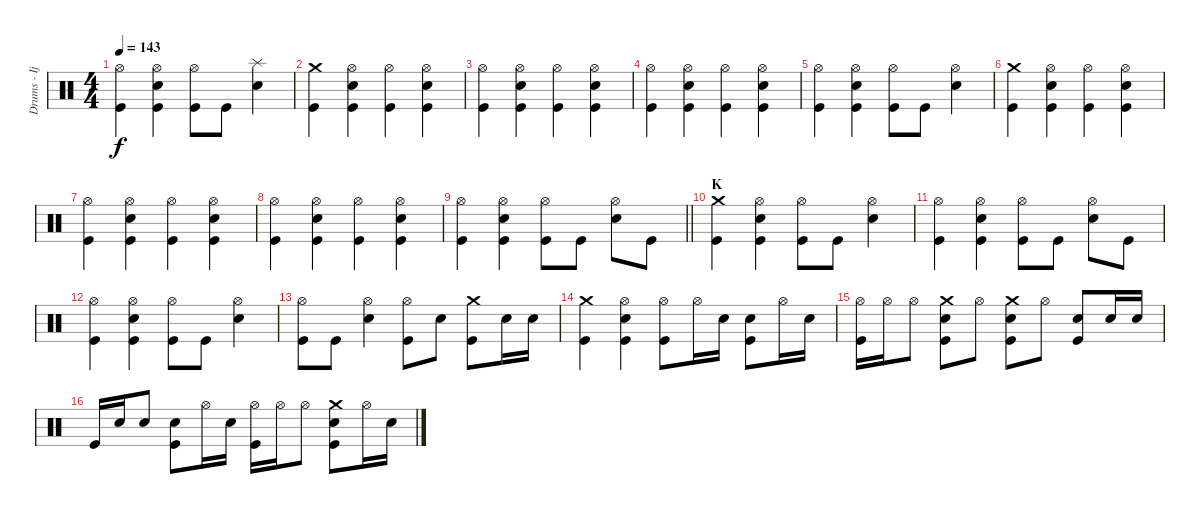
\track ("Drums - Ijichi" "Drums - Ij") {instrument percussion}
\staff {score}
\articulation defaults
\ts (4 4)
\tempo 143
\clef neutral
\ks c
("Hi-Hat (open)" "Kick (hit)").4{dy f} ("Hi-Hat (open)" "Electric Snare (hit)" "Kick (hit)").4 ("Hi-Hat (open)" "Kick (hit)").8 "Kick (hit)".8 ("Splash (hit)" "Electric Snare (hit)").4 |
("Crash medium (hit)" "Kick (hit)").4 ("Hi-Hat (open)" "Electric Snare (hit)" "Kick (hit)").4 ("Hi-Hat (open)" "Kick (hit)").4 ("Hi-Hat (open)" "Electric Snare (hit)" "Kick (hit)").4 |
("Hi-Hat (open)" "Kick (hit)").4 ("Hi-Hat (open)" "Electric Snare (hit)" "Kick (hit)").4 ("Hi-Hat (open)" "Kick (hit)").4 ("Hi-Hat (open)" "Electric Snare (hit)" "Kick (hit)").4 |
("Hi-Hat (open)" "Kick (hit)").4 ("Hi-Hat (open)" "Electric Snare (hit)" "Kick (hit)").4 ("Hi-Hat (open)" "Kick (hit)").4 ("Hi-Hat (open)" "Electric Snare (hit)" "Kick (hit)").4 |
("Hi-Hat (open)" "Kick (hit)").4 ("Hi-Hat (open)" "Electric Snare (hit)" "Kick (hit)").4 ("Hi-Hat (open)" "Kick (hit)").8 "Kick (hit)".8 ("Hi-Hat (open)" "Electric Snare (hit)").4 |
("Crash medium (hit)" "Kick (hit)").4 ("Hi-Hat (open)" "Electric Snare (hit)" "Kick (hit)").4 ("Hi-Hat (open)" "Kick (hit)").4 ("Hi-Hat (open)" "Electric Snare (hit)" "Kick (hit)").4 |
("Hi-Hat (open)" "Kick (hit)").4 ("Hi-Hat (open)" "Electric Snare (hit)" "Kick (hit)").4 ("Hi-Hat (open)" "Kick (hit)").4 ("Hi-Hat (open)" "Electric Snare (hit)" "Kick (hit)").4 |
("Hi-Hat (open)" "Kick (hit)").4 ("Hi-Hat (open)" "Electric Snare (hit)" "Kick (hit)").4 ("Hi-Hat (open)" "Kick (hit)").4 ("Hi-Hat (open)" "Electric Snare (hit)" "Kick (hit)").4 |
\barLineRight lightlight
("Hi-Hat (open)" "Kick (hit)").4 ("Hi-Hat (open)" "Electric Snare (hit)" "Kick (hit)").4 ("Hi-Hat (open)" "Kick (hit)").8 "Kick (hit)".8 ("Hi-Hat (open)" "Electric Snare (hit)").8 "Kick (hit)".8 |
\section ("" "K")
("Crash medium (hit)" "Kick (hit)").4 ("Hi-Hat (open)" "Electric Snare (hit)" "Kick (hit)").4 ("Hi-Hat (open)" "Kick (hit)").8 "Kick (hit)".8 ("Hi-Hat (open)" "Electric Snare (hit)").4 |
("Hi-Hat (open)" "Kick (hit)").4 ("Hi-Hat (open)" "Electric Snare (hit)" "Kick (hit)").4 ("Hi-Hat (open)" "Kick (hit)").8 "Kick (hit)".8 ("Hi-Hat (open)" "Electric Snare (hit)").8 "Kick (hit)".8 |
("Hi-Hat (open)" "Kick (hit)").4 ("Hi-Hat (open)" "Electric Snare (hit)" "Kick (hit)").4 ("Hi-Hat (open)" "Kick (hit)").8 "Kick (hit)".8 ("Hi-Hat (open)" "Electric Snare (hit)").4 |
("Hi-Hat (open)" "Kick (hit)").8 "Kick (hit)".8 ("Hi-Hat (open)" "Electric Snare (hit)").4 ("Hi-Hat (open)" "Kick (hit)").8 "Electric Snare (hit)".8 ("Crash medium (hit)" "Kick (hit)").8 "Electric Snare (hit)".16 "Electric Snare (hit)".16 |
("Crash medium (hit)" "Kick (hit)").4 ("Hi-Hat (open)" "Electric Snare (hit)" "Kick (hit)").4 ("Hi-Hat (open)" "Kick (hit)").8 "Hi-Hat (open)".16 "Electric Snare (hit)".16 ("Electric Snare (hit)" "Kick (hit)").8 "Hi-Hat (open)".16 "Electric Snare (hit)".16 |
("Hi-Hat (open)" "Kick (hit)").16 "Hi-Hat (open)".16 "Hi-Hat (open)".8 ("Crash medium (hit)" "Electric Snare (hit)" "Kick (hit)").8 "Hi-Hat (open)".8 ("Crash medium (hit)" "Electric Snare (hit)" "Kick (hit)").8 "Hi-Hat (open)".8 ("Electric Snare (hit)" "Kick (hit)").8 "Electric Snare (hit)".16 "Electric Snare (hit)".16 |
"Kick (hit)".16 "Electric Snare (hit)".16 "Electric Snare (hit)".8 ("Electric Snare (hit)" "Kick (hit)").8 "Hi-Hat (open)".16 "Electric Snare (hit)".16 ("Hi-Hat (open)" "Kick (hit)").16 "Hi-Hat (open)".16 "Hi-Hat (open)".8 ("Crash medium (hit)" "Electric Snare (hit)" "Kick (hit)").8 "Hi-Hat (open)".16 "Electric Snare (hit)".16
